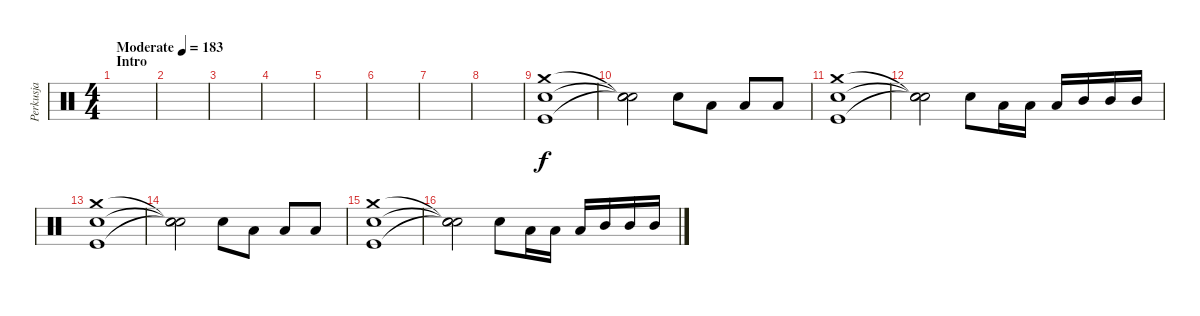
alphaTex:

\track ("Perkusja" "Perkusja") {instrument percussion}
\staff {score}
\articulation defaults
\ts (4 4)
\section ("" "Intro")
\tempo (183 "Moderate")
\clef neutral
\ks c
|
|
|
|
|
|
|
|
("Kick (hit)" "Snare (hit) 2" "Crash medium (hit)").1 |
("Snare (hit)"{t} "Snare (hit)"{t} "Snare (hit)"{t}).2 "Snare (hit) 2".8 "Low Tom (hit)".8 "Low Tom (hit)".8 "Low Tom (hit)".8 |
("Kick (hit)" "Snare (hit) 2" "Crash medium (hit)").1 |
("Snare (hit)"{t} "Snare (hit)"{t} "Snare (hit)"{t}).2 "Snare (hit) 2".8 "Low Tom (hit)".16 "Low Tom (hit)".16 "Low Tom (hit)".16 "Mid Tom (hit)".16 "Mid Tom (hit)".16 "Mid Tom (hit)".16 |
("Kick (hit)" "Snare (hit) 2" "Crash medium (hit)").1 |
("Snare (hit)"{t} "Snare (hit)"{t} "Snare (hit)"{t}).2 "Snare (hit) 2".8 "Low Tom (hit)".8 "Low Tom (hit)".8 "Low Tom (hit)".8 |
("Kick (hit)" "Snare (hit) 2" "Crash medium (hit)").1 |
("Snare (hit)"{t} "Snare (hit)"{t} "Snare (hit)"{t}).2 "Snare (hit) 2".8 "Low Tom (hit)".16 "Low Tom (hit)".16 "Low Tom (hit)".16 "Mid Tom (hit)".16 "Mid Tom (hit)".16 "Mid Tom (hit)".16
